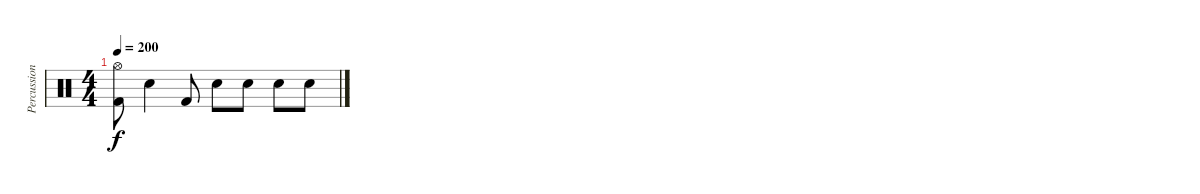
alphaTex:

\track ("Percussion" "Percussion") {instrument percussion}
\staff {score}
\articulation defaults
\ts (4 4)
\tempo 200
\clef neutral
\ks c
("Hi-Hat (open)" "Kick (hit) 2").8{dy f} "Electric Snare (hit)".4 "Kick (hit) 2".8 "Electric Snare (hit)".8 "Electric Snare (hit)".8 "Electric Snare (hit)".8 "Electric Snare (hit)".8
